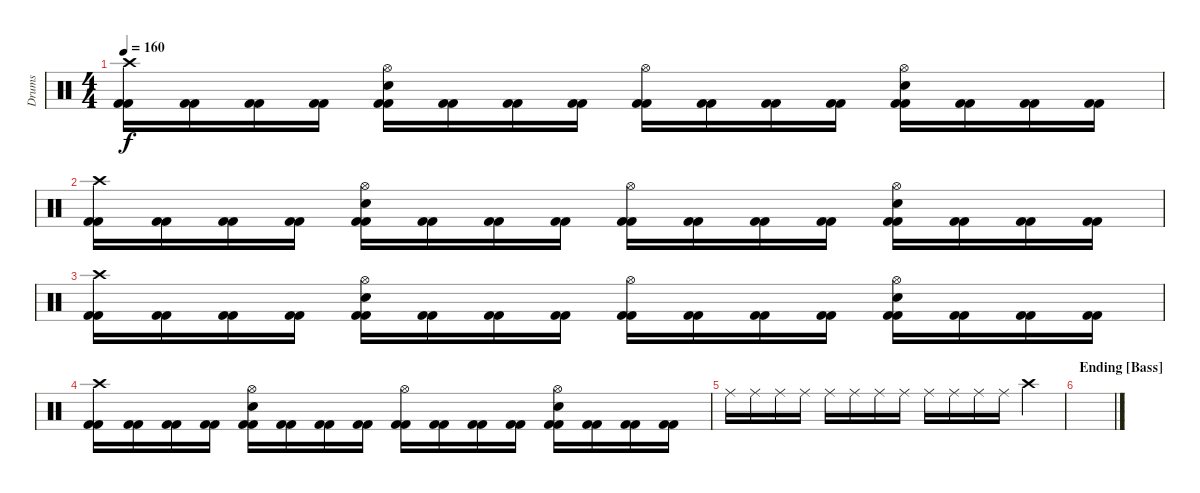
\track ("Drums" "Drums") {instrument percussion}
\staff {score}
\articulation defaults
\ts (4 4)
\tempo 160
\clef neutral
\ks c
("Kick (hit) 2" "Kick (hit) 2" "Crash high (hit)").16{dy f} ("Kick (hit) 2" "Kick (hit) 2").16 ("Kick (hit) 2" "Kick (hit) 2").16 ("Kick (hit) 2" "Kick (hit) 2").16 ("Kick (hit) 2" "Kick (hit) 2" "Electric Snare (hit)" "Hi-Hat (open)").16 ("Kick (hit) 2" "Kick (hit) 2").16 ("Kick (hit) 2" "Kick (hit) 2").16 ("Kick (hit) 2" "Kick (hit) 2").16 ("Kick (hit) 2" "Kick (hit) 2" "Hi-Hat (open)").16 ("Kick (hit) 2" "Kick (hit) 2").16 ("Kick (hit) 2" "Kick (hit) 2").16 ("Kick (hit) 2" "Kick (hit) 2").16 ("Kick (hit) 2" "Kick (hit) 2" "Electric Snare (hit)" "Hi-Hat (open)").16 ("Kick (hit) 2" "Kick (hit) 2").16 ("Kick (hit) 2" "Kick (hit) 2").16 ("Kick (hit) 2" "Kick (hit) 2").16 |
("Kick (hit) 2" "Kick (hit) 2" "Crash high (hit)").16 ("Kick (hit) 2" "Kick (hit) 2").16 ("Kick (hit) 2" "Kick (hit) 2").16 ("Kick (hit) 2" "Kick (hit) 2").16 ("Kick (hit) 2" "Kick (hit) 2" "Electric Snare (hit)" "Hi-Hat (open)").16 ("Kick (hit) 2" "Kick (hit) 2").16 ("Kick (hit) 2" "Kick (hit) 2").16 ("Kick (hit) 2" "Kick (hit) 2").16 ("Kick (hit) 2" "Kick (hit) 2" "Hi-Hat (open)").16 ("Kick (hit) 2" "Kick (hit) 2").16 ("Kick (hit) 2" "Kick (hit) 2").16 ("Kick (hit) 2" "Kick (hit) 2").16 ("Kick (hit) 2" "Kick (hit) 2" "Electric Snare (hit)" "Hi-Hat (open)").16 ("Kick (hit) 2" "Kick (hit) 2").16 ("Kick (hit) 2" "Kick (hit) 2").16 ("Kick (hit) 2" "Kick (hit) 2").16 |
("Kick (hit) 2" "Kick (hit) 2" "Crash high (hit)").16 ("Kick (hit) 2" "Kick (hit) 2").16 ("Kick (hit) 2" "Kick (hit) 2").16 ("Kick (hit) 2" "Kick (hit) 2").16 ("Kick (hit) 2" "Kick (hit) 2" "Electric Snare (hit)" "Hi-Hat (open)").16 ("Kick (hit) 2" "Kick (hit) 2").16 ("Kick (hit) 2" "Kick (hit) 2").16 ("Kick (hit) 2" "Kick (hit) 2").16 ("Kick (hit) 2" "Kick (hit) 2" "Hi-Hat (open)").16 ("Kick (hit) 2" "Kick (hit) 2").16 ("Kick (hit) 2" "Kick (hit) 2").16 ("Kick (hit) 2" "Kick (hit) 2").16 ("Kick (hit) 2" "Kick (hit) 2" "Electric Snare (hit)" "Hi-Hat (open)").16 ("Kick (hit) 2" "Kick (hit) 2").16 ("Kick (hit) 2" "Kick (hit) 2").16 ("Kick (hit) 2" "Kick (hit) 2").16 |
("Kick (hit) 2" "Kick (hit) 2" "Crash high (hit)").16 ("Kick (hit) 2" "Kick (hit) 2").16 ("Kick (hit) 2" "Kick (hit) 2").16 ("Kick (hit) 2" "Kick (hit) 2").16 ("Kick (hit) 2" "Kick (hit) 2" "Electric Snare (hit)" "Hi-Hat (open)").16 ("Kick (hit) 2" "Kick (hit) 2").16 ("Kick (hit) 2" "Kick (hit) 2").16 ("Kick (hit) 2" "Kick (hit) 2").16 ("Kick (hit) 2" "Kick (hit) 2" "Hi-Hat (open)").16 ("Kick (hit) 2" "Kick (hit) 2").16 ("Kick (hit) 2" "Kick (hit) 2").16 ("Kick (hit) 2" "Kick (hit) 2").16 ("Kick (hit) 2" "Kick (hit) 2" "Electric Snare (hit)" "Hi-Hat (open)").16 ("Kick (hit) 2" "Kick (hit) 2").16 ("Kick (hit) 2" "Kick (hit) 2").16 ("Kick (hit) 2" "Kick (hit) 2").16 |
"Ride (middle)".16 "Ride (middle)".16 "Ride (middle)".16 "Ride (middle)".16 "Ride (middle)".16 "Ride (middle)".16 "Ride (middle)".16 "Ride (middle)".16 "Ride (middle)".16 "Ride (middle)".16 "Ride (middle)".16 "Ride (middle)".16 "Crash high (hit)".4 |
\section ("" "Ending [Bass]")
